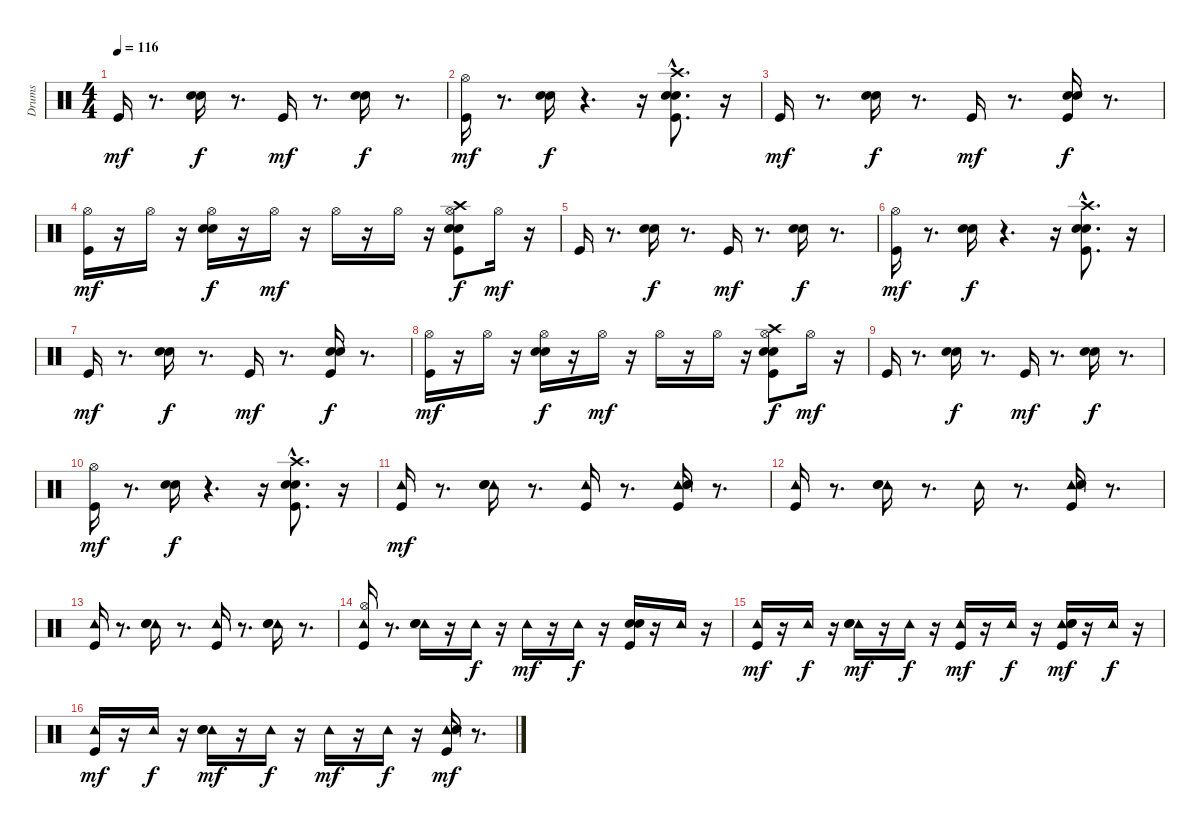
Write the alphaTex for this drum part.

\track ("Drums" "Drums") {instrument percussion}
\staff {score}
\articulation defaults
\ts (4 4)
\tempo 116
\clef neutral
\ks c "Kick (hit)".16{dy mf}
r.8{d} ("Electric Snare (hit)" "Snare (hit) 2").16{dy f} r.8{d} "Kick (hit)".16{dy mf} r.8{d} ("Electric Snare (hit)" "Snare (hit) 2").16{dy f} r.8{d} |
("Hi-Hat (open)" "Kick (hit)").16{dy mf} r.8{d} ("Electric Snare (hit)" "Snare (hit) 2").16{dy f} r.4{d} r.16 ("Crash high (hit)"{hac} "Electric Snare (hit)" "Snare (hit) 2" "Kick (hit)").8{d} r.16 |
"Kick (hit)".16{dy mf} r.8{d} ("Electric Snare (hit)" "Snare (hit) 2").16{dy f} r.8{d} "Kick (hit)".16{dy mf} r.8{d} ("Electric Snare (hit)" "Snare (hit) 2" "Kick (hit)").16{dy f} r.8{d} |
("Hi-Hat (open)" "Kick (hit)").16{dy mf} r.16 "Hi-Hat (open)".16 r.16 ("Hi-Hat (open)" "Electric Snare (hit)" "Snare (hit) 2").16{dy f} r.16 "Hi-Hat (open)".16{dy mf} r.16 "Hi-Hat (open)".16 r.16 "Hi-Hat (open)".16 r.16 ("Hi-Hat (open)" "Crash high (hit)" "Electric Snare (hit)" "Snare (hit) 2" "Kick (hit)").8{dy f} "Hi-Hat (open)".16{dy mf} r.16 |
"Kick (hit)".16 r.8{d} ("Electric Snare (hit)" "Snare (hit) 2").16{dy f} r.8{d} "Kick (hit)".16{dy mf} r.8{d} ("Electric Snare (hit)" "Snare (hit) 2").16{dy f} r.8{d} |
("Hi-Hat (open)" "Kick (hit)").16{dy mf} r.8{d} ("Electric Snare (hit)" "Snare (hit) 2").16{dy f} r.4{d} r.16 ("Crash high (hit)"{hac} "Electric Snare (hit)" "Snare (hit) 2" "Kick (hit)").8{d} r.16 |
"Kick (hit)".16{dy mf} r.8{d} ("Electric Snare (hit)" "Snare (hit) 2").16{dy f} r.8{d} "Kick (hit)".16{dy mf} r.8{d} ("Electric Snare (hit)" "Snare (hit) 2" "Kick (hit)").16{dy f} r.8{d} |
("Hi-Hat (open)" "Kick (hit)").16{dy mf} r.16 "Hi-Hat (open)".16 r.16 ("Hi-Hat (open)" "Electric Snare (hit)" "Snare (hit) 2").16{dy f} r.16 "Hi-Hat (open)".16{dy mf} r.16 "Hi-Hat (open)".16 r.16 "Hi-Hat (open)".16 r.16 ("Hi-Hat (open)" "Crash high (hit)" "Electric Snare (hit)" "Snare (hit) 2" "Kick (hit)").8{dy f} "Hi-Hat (open)".16{dy mf} r.16 |
"Kick (hit)".16 r.8{d} ("Electric Snare (hit)" "Snare (hit) 2").16{dy f} r.8{d} "Kick (hit)".16{dy mf} r.8{d} ("Electric Snare (hit)" "Snare (hit) 2").16{dy f} r.8{d} |
("Hi-Hat (open)" "Kick (hit)").16{dy mf} r.8{d} ("Electric Snare (hit)" "Snare (hit) 2").16{dy f} r.4{d} r.16 ("Crash high (hit)"{hac} "Electric Snare (hit)" "Snare (hit) 2" "Kick (hit)").8{d} r.16 |
("Tambourine (hit)" "Kick (hit)").16{dy mf} r.8{d} ("Tambourine (hit)" "Electric Snare (hit)" "Snare (hit) 2").16 r.8{d} ("Tambourine (hit)" "Kick (hit)").16 r.8{d} ("Tambourine (hit)" "Electric Snare (hit)" "Snare (hit) 2" "Kick (hit)").16 r.8{d} |
("Tambourine (hit)" "Kick (hit)").16 r.8{d} ("Tambourine (hit)" "Electric Snare (hit)" "Snare (hit) 2").16 r.8{d} "Tambourine (hit)".16 r.8{d} ("Tambourine (hit)" "Electric Snare (hit)" "Snare (hit) 2" "Kick (hit)").16 r.8{d} |
("Tambourine (hit)" "Kick (hit)").16 r.8{d} ("Tambourine (hit)" "Electric Snare (hit)" "Snare (hit) 2").16 r.8{d} ("Tambourine (hit)" "Kick (hit)").16 r.8{d} ("Tambourine (hit)" "Electric Snare (hit)" "Snare (hit) 2").16 r.8{d} |
("Tambourine (hit)" "Hi-Hat (open)" "Kick (hit)").16 r.8{d} ("Tambourine (hit)" "Electric Snare (hit)" "Snare (hit) 2").16 r.16 "Tambourine (hit)".16{dy f} r.16 "Tambourine (hit)".16{dy mf} r.16 "Tambourine (hit)".16{dy f} r.16 ("Electric Snare (hit)" "Snare (hit) 2" "Kick (hit)").16 r.16 "Tambourine (hit)".16 r.16 |
("Tambourine (hit)" "Kick (hit)").16{dy mf} r.16 "Tambourine (hit)".16{dy f} r.16 ("Tambourine (hit)" "Electric Snare (hit)" "Snare (hit) 2").16{dy mf} r.16 "Tambourine (hit)".16{dy f} r.16 ("Tambourine (hit)" "Kick (hit)").16{dy mf} r.16 "Tambourine (hit)".16{dy f} r.16 ("Tambourine (hit)" "Electric Snare (hit)" "Snare (hit) 2" "Kick (hit)").16{dy mf} r.16 "Tambourine (hit)".16{dy f} r.16 |
("Tambourine (hit)" "Kick (hit)").16{dy mf} r.16 "Tambourine (hit)".16{dy f} r.16 ("Tambourine (hit)" "Electric Snare (hit)" "Snare (hit) 2").16{dy mf} r.16 "Tambourine (hit)".16{dy f} r.16 "Tambourine (hit)".16{dy mf} r.16 "Tambourine (hit)".16{dy f} r.16 ("Tambourine (hit)" "Electric Snare (hit)" "Snare (hit) 2" "Kick (hit)").16{dy mf} r.8{d}
